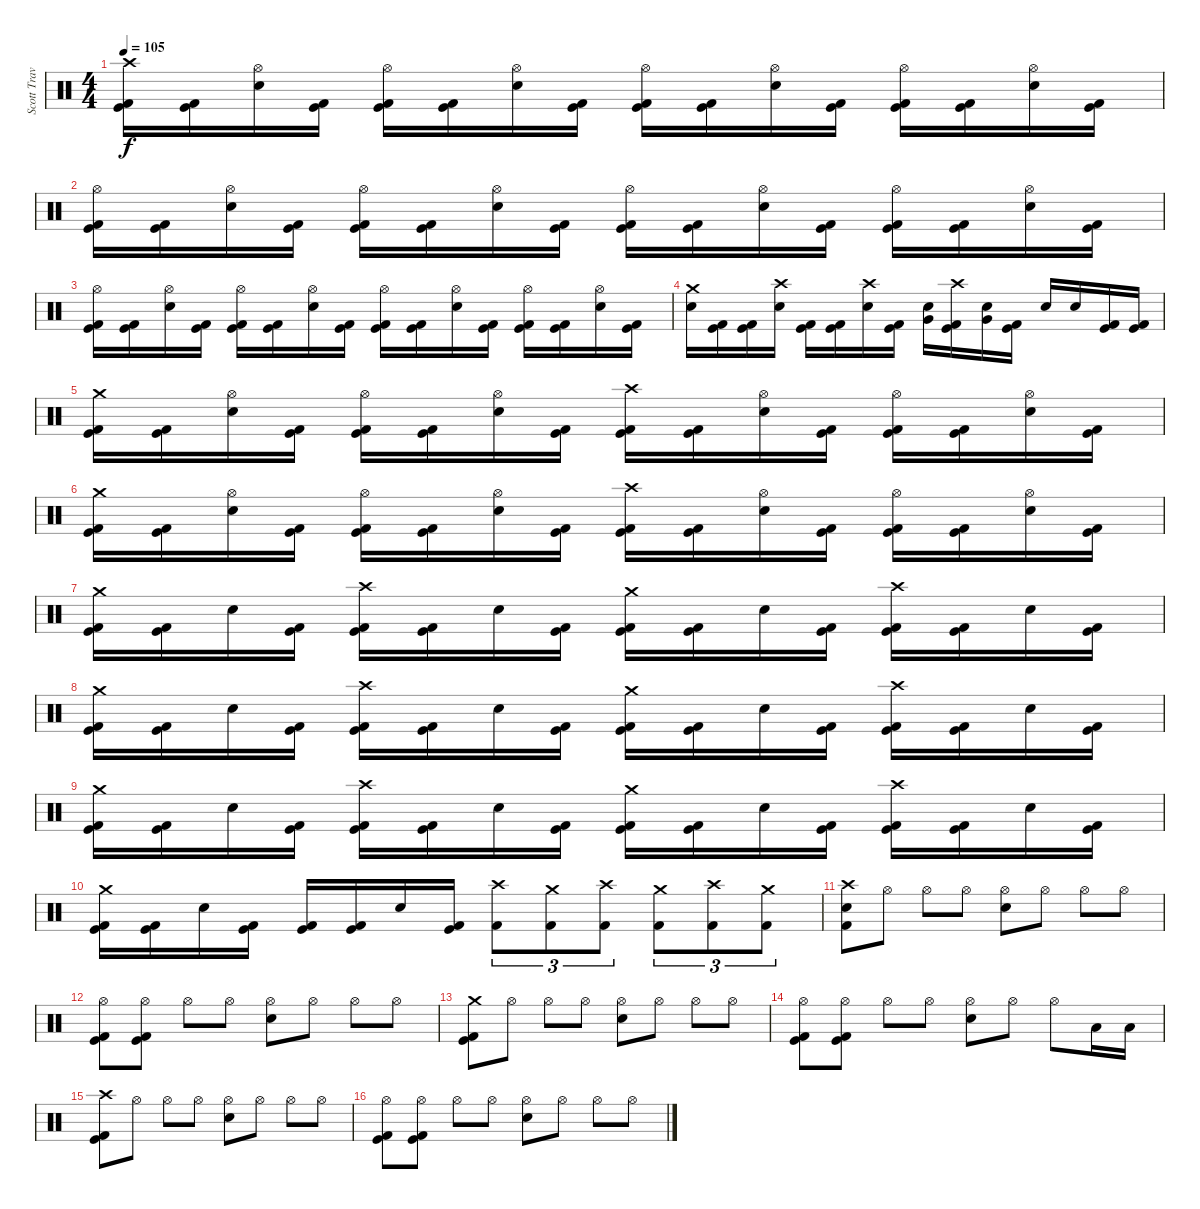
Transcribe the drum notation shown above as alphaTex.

\track ("Scott Travis" "Scott Trav") {instrument percussion}
\staff {score}
\articulation defaults
\ts (4 4)
\tempo 105
\clef neutral
\ks c
("Crash high (hit)" "Kick (hit) 2" "Kick (hit)").16{dy f} ("Kick (hit) 2" "Kick (hit)").16 ("Hi-Hat (open)" "Snare (hit) 2").16 ("Kick (hit) 2" "Kick (hit)").16 ("Hi-Hat (open)" "Kick (hit) 2" "Kick (hit)").16 ("Kick (hit) 2" "Kick (hit)").16 ("Hi-Hat (open)" "Snare (hit) 2").16 ("Kick (hit) 2" "Kick (hit)").16 ("Hi-Hat (open)" "Kick (hit) 2" "Kick (hit)").16 ("Kick (hit) 2" "Kick (hit)").16 ("Hi-Hat (open)" "Snare (hit) 2").16 ("Kick (hit) 2" "Kick (hit)").16 ("Hi-Hat (open)" "Kick (hit) 2" "Kick (hit)").16 ("Kick (hit) 2" "Kick (hit)").16 ("Hi-Hat (open)" "Snare (hit) 2").16 ("Kick (hit) 2" "Kick (hit)").16 |
("Hi-Hat (open)" "Kick (hit) 2" "Kick (hit)").16 ("Kick (hit) 2" "Kick (hit)").16 ("Hi-Hat (open)" "Snare (hit) 2").16 ("Kick (hit) 2" "Kick (hit)").16 ("Hi-Hat (open)" "Kick (hit) 2" "Kick (hit)").16 ("Kick (hit) 2" "Kick (hit)").16 ("Hi-Hat (open)" "Snare (hit) 2").16 ("Kick (hit) 2" "Kick (hit)").16 ("Hi-Hat (open)" "Kick (hit) 2" "Kick (hit)").16 ("Kick (hit) 2" "Kick (hit)").16 ("Hi-Hat (open)" "Snare (hit) 2").16 ("Kick (hit) 2" "Kick (hit)").16 ("Hi-Hat (open)" "Kick (hit) 2" "Kick (hit)").16 ("Kick (hit) 2" "Kick (hit)").16 ("Hi-Hat (open)" "Snare (hit) 2").16 ("Kick (hit) 2" "Kick (hit)").16 |
("Hi-Hat (open)" "Kick (hit) 2" "Kick (hit)").16 ("Kick (hit) 2" "Kick (hit)").16 ("Hi-Hat (open)" "Snare (hit) 2").16 ("Kick (hit) 2" "Kick (hit)").16 ("Hi-Hat (open)" "Kick (hit) 2" "Kick (hit)").16 ("Kick (hit) 2" "Kick (hit)").16 ("Hi-Hat (open)" "Snare (hit) 2").16 ("Kick (hit) 2" "Kick (hit)").16 ("Hi-Hat (open)" "Kick (hit) 2" "Kick (hit)").16 ("Kick (hit) 2" "Kick (hit)").16 ("Hi-Hat (open)" "Snare (hit) 2").16 ("Kick (hit) 2" "Kick (hit)").16 ("Hi-Hat (open)" "Kick (hit) 2" "Kick (hit)").16 ("Kick (hit) 2" "Kick (hit)").16 ("Hi-Hat (open)" "Snare (hit) 2").16 ("Kick (hit) 2" "Kick (hit)").16 |
("Crash medium (hit)" "Snare (hit) 2").16 ("Kick (hit) 2" "Kick (hit)").16 ("Kick (hit)" "Kick (hit) 2").16 ("Crash high (hit)" "Snare (hit) 2").16 ("Kick (hit) 2" "Kick (hit)").16 ("Kick (hit) 2" "Kick (hit)").16 ("Crash high (hit)" "Snare (hit) 2").16 ("Kick (hit) 2" "Kick (hit)").16 ("Snare (hit) 2" "Very Low Tom (hit)").16 ("Crash high (hit)" "Kick (hit) 2" "Kick (hit)").16 ("Snare (hit) 2" "Very Low Tom (hit)").16 ("Kick (hit) 2" "Kick (hit)").16 "Snare (hit) 2".16 "Snare (hit) 2".16 ("Kick (hit)" "Kick (hit) 2").16 ("Kick (hit) 2" "Kick (hit)").16 |
("Crash medium (hit)" "Kick (hit) 2" "Kick (hit)").16 ("Kick (hit) 2" "Kick (hit)").16 ("Hi-Hat (open)" "Snare (hit) 2").16 ("Kick (hit) 2" "Kick (hit)").16 ("Hi-Hat (open)" "Kick (hit) 2" "Kick (hit)").16 ("Kick (hit) 2" "Kick (hit)").16 ("Hi-Hat (open)" "Snare (hit) 2").16 ("Kick (hit) 2" "Kick (hit)").16 ("Crash high (hit)" "Kick (hit) 2" "Kick (hit)").16 ("Kick (hit) 2" "Kick (hit)").16 ("Hi-Hat (open)" "Snare (hit) 2").16 ("Kick (hit) 2" "Kick (hit)").16 ("Hi-Hat (open)" "Kick (hit) 2" "Kick (hit)").16 ("Kick (hit) 2" "Kick (hit)").16 ("Hi-Hat (open)" "Snare (hit) 2").16 ("Kick (hit) 2" "Kick (hit)").16 |
("Crash medium (hit)" "Kick (hit) 2" "Kick (hit)").16 ("Kick (hit) 2" "Kick (hit)").16 ("Hi-Hat (open)" "Snare (hit) 2").16 ("Kick (hit) 2" "Kick (hit)").16 ("Hi-Hat (open)" "Kick (hit) 2" "Kick (hit)").16 ("Kick (hit) 2" "Kick (hit)").16 ("Hi-Hat (open)" "Snare (hit) 2").16 ("Kick (hit) 2" "Kick (hit)").16 ("Crash high (hit)" "Kick (hit) 2" "Kick (hit)").16 ("Kick (hit) 2" "Kick (hit)").16 ("Hi-Hat (open)" "Snare (hit) 2").16 ("Kick (hit) 2" "Kick (hit)").16 ("Hi-Hat (open)" "Kick (hit) 2" "Kick (hit)").16 ("Kick (hit) 2" "Kick (hit)").16 ("Hi-Hat (open)" "Snare (hit) 2").16 ("Kick (hit) 2" "Kick (hit)").16 |
("Crash medium (hit)" "Kick (hit) 2" "Kick (hit)").16 ("Kick (hit) 2" "Kick (hit)").16 "Snare (hit) 2".16 ("Kick (hit) 2" "Kick (hit)").16 ("Crash high (hit)" "Kick (hit) 2" "Kick (hit)").16 ("Kick (hit) 2" "Kick (hit)").16 "Snare (hit) 2".16 ("Kick (hit) 2" "Kick (hit)").16 ("Crash medium (hit)" "Kick (hit) 2" "Kick (hit)").16 ("Kick (hit) 2" "Kick (hit)").16 "Snare (hit) 2".16 ("Kick (hit) 2" "Kick (hit)").16 ("Crash high (hit)" "Kick (hit) 2" "Kick (hit)").16 ("Kick (hit) 2" "Kick (hit)").16 "Snare (hit) 2".16 ("Kick (hit) 2" "Kick (hit)").16 |
("Crash medium (hit)" "Kick (hit) 2" "Kick (hit)").16 ("Kick (hit) 2" "Kick (hit)").16 "Snare (hit) 2".16 ("Kick (hit) 2" "Kick (hit)").16 ("Crash high (hit)" "Kick (hit) 2" "Kick (hit)").16 ("Kick (hit) 2" "Kick (hit)").16 "Snare (hit) 2".16 ("Kick (hit) 2" "Kick (hit)").16 ("Crash medium (hit)" "Kick (hit) 2" "Kick (hit)").16 ("Kick (hit) 2" "Kick (hit)").16 "Snare (hit) 2".16 ("Kick (hit) 2" "Kick (hit)").16 ("Crash high (hit)" "Kick (hit) 2" "Kick (hit)").16 ("Kick (hit) 2" "Kick (hit)").16 "Snare (hit) 2".16 ("Kick (hit) 2" "Kick (hit)").16 |
("Crash medium (hit)" "Kick (hit) 2" "Kick (hit)").16 ("Kick (hit) 2" "Kick (hit)").16 "Snare (hit) 2".16 ("Kick (hit) 2" "Kick (hit)").16 ("Crash high (hit)" "Kick (hit) 2" "Kick (hit)").16 ("Kick (hit) 2" "Kick (hit)").16 "Snare (hit) 2".16 ("Kick (hit) 2" "Kick (hit)").16 ("Crash medium (hit)" "Kick (hit) 2" "Kick (hit)").16 ("Kick (hit) 2" "Kick (hit)").16 "Snare (hit) 2".16 ("Kick (hit) 2" "Kick (hit)").16 ("Crash high (hit)" "Kick (hit) 2" "Kick (hit)").16 ("Kick (hit) 2" "Kick (hit)").16 "Snare (hit) 2".16 ("Kick (hit) 2" "Kick (hit)").16 |
("Crash medium (hit)" "Kick (hit) 2" "Kick (hit)").16 ("Kick (hit) 2" "Kick (hit)").16 "Snare (hit) 2".16 ("Kick (hit) 2" "Kick (hit)").16 ("Kick (hit) 2" "Kick (hit)").16 ("Kick (hit) 2" "Kick (hit)").16 "Snare (hit) 2".16 ("Kick (hit) 2" "Kick (hit)").16 ("Crash high (hit)" "Kick (hit) 2").8{tu (3 2)} ("Crash medium (hit)" "Kick (hit) 2").8{tu (3 2)} ("Crash high (hit)" "Kick (hit) 2").8{tu (3 2)} ("Crash medium (hit)" "Kick (hit) 2").8{tu (3 2)} ("Crash high (hit)" "Kick (hit) 2").8{tu (3 2)} ("Crash medium (hit)" "Kick (hit) 2").8{tu (3 2)} |
("Crash high (hit)" "Snare (hit) 2" "Kick (hit) 2").8 "Hi-Hat (open)".8 "Hi-Hat (open)".8 "Hi-Hat (open)".8 ("Hi-Hat (open)" "Snare (hit) 2").8 "Hi-Hat (open)".8 "Hi-Hat (open)".8 "Hi-Hat (open)".8 |
("Hi-Hat (open)" "Kick (hit)" "Kick (hit) 2").8 ("Hi-Hat (open)" "Kick (hit)" "Kick (hit) 2").8 "Hi-Hat (open)".8 "Hi-Hat (open)".8 ("Hi-Hat (open)" "Snare (hit) 2").8 "Hi-Hat (open)".8 "Hi-Hat (open)".8 "Hi-Hat (open)".8 |
("Crash medium (hit)" "Kick (hit)" "Kick (hit) 2").8 "Hi-Hat (open)".8 "Hi-Hat (open)".8 "Hi-Hat (open)".8 ("Hi-Hat (open)" "Snare (hit) 2").8 "Hi-Hat (open)".8 "Hi-Hat (open)".8 "Hi-Hat (open)".8 |
("Hi-Hat (open)" "Kick (hit)" "Kick (hit) 2").8 ("Hi-Hat (open)" "Kick (hit)" "Kick (hit) 2").8 "Hi-Hat (open)".8 "Hi-Hat (open)".8 ("Hi-Hat (open)" "Snare (hit) 2").8 "Hi-Hat (open)".8 "Hi-Hat (open)".8 "Low Tom (hit)".16 "Low Tom (hit)".16 |
("Crash high (hit)" "Kick (hit)" "Kick (hit) 2").8 "Hi-Hat (open)".8 "Hi-Hat (open)".8 "Hi-Hat (open)".8 ("Hi-Hat (open)" "Snare (hit) 2").8 "Hi-Hat (open)".8 "Hi-Hat (open)".8 "Hi-Hat (open)".8 |
("Hi-Hat (open)" "Kick (hit)" "Kick (hit) 2").8 ("Hi-Hat (open)" "Kick (hit)" "Kick (hit) 2").8 "Hi-Hat (open)".8 "Hi-Hat (open)".8 ("Hi-Hat (open)" "Snare (hit) 2").8 "Hi-Hat (open)".8 "Hi-Hat (open)".8 "Hi-Hat (open)".8
